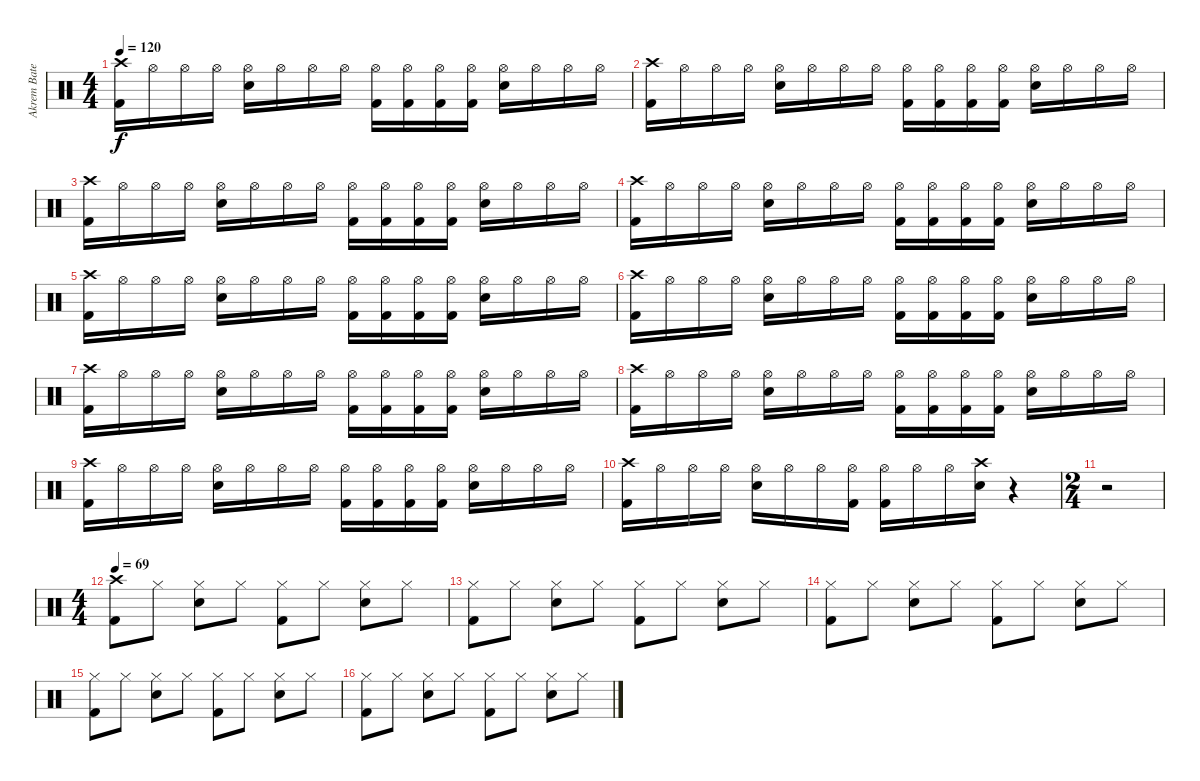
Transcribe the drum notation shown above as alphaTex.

\track ("Akrem Baterie" "Akrem Bate") {instrument percussion}
\staff {score}
\articulation defaults
\ts (4 4)
\tempo 120
\clef neutral
\ks c
("Crash high (hit)" "Kick (hit) 2").16{dy f} "Hi-Hat (open)".16 "Hi-Hat (open)".16 "Hi-Hat (open)".16 ("Hi-Hat (open)" "Electric Snare (hit)").16 "Hi-Hat (open)".16 "Hi-Hat (open)".16 "Hi-Hat (open)".16 ("Hi-Hat (open)" "Kick (hit) 2").16 ("Hi-Hat (open)" "Kick (hit) 2").16 ("Hi-Hat (open)" "Kick (hit) 2").16 ("Hi-Hat (open)" "Kick (hit) 2").16 ("Hi-Hat (open)" "Electric Snare (hit)").16 "Hi-Hat (open)".16 "Hi-Hat (open)".16 "Hi-Hat (open)".16 |
("Crash high (hit)" "Kick (hit) 2").16 "Hi-Hat (open)".16 "Hi-Hat (open)".16 "Hi-Hat (open)".16 ("Hi-Hat (open)" "Electric Snare (hit)").16 "Hi-Hat (open)".16 "Hi-Hat (open)".16 "Hi-Hat (open)".16 ("Hi-Hat (open)" "Kick (hit) 2").16 ("Hi-Hat (open)" "Kick (hit) 2").16 ("Hi-Hat (open)" "Kick (hit) 2").16 ("Hi-Hat (open)" "Kick (hit) 2").16 ("Hi-Hat (open)" "Electric Snare (hit)").16 "Hi-Hat (open)".16 "Hi-Hat (open)".16 "Hi-Hat (open)".16 |
("Crash high (hit)" "Kick (hit) 2").16 "Hi-Hat (open)".16 "Hi-Hat (open)".16 "Hi-Hat (open)".16 ("Hi-Hat (open)" "Electric Snare (hit)").16 "Hi-Hat (open)".16 "Hi-Hat (open)".16 "Hi-Hat (open)".16 ("Hi-Hat (open)" "Kick (hit) 2").16 ("Hi-Hat (open)" "Kick (hit) 2").16 ("Hi-Hat (open)" "Kick (hit) 2").16 ("Hi-Hat (open)" "Kick (hit) 2").16 ("Hi-Hat (open)" "Electric Snare (hit)").16 "Hi-Hat (open)".16 "Hi-Hat (open)".16 "Hi-Hat (open)".16 |
("Crash high (hit)" "Kick (hit) 2").16 "Hi-Hat (open)".16 "Hi-Hat (open)".16 "Hi-Hat (open)".16 ("Hi-Hat (open)" "Electric Snare (hit)").16 "Hi-Hat (open)".16 "Hi-Hat (open)".16 "Hi-Hat (open)".16 ("Hi-Hat (open)" "Kick (hit) 2").16 ("Hi-Hat (open)" "Kick (hit) 2").16 ("Hi-Hat (open)" "Kick (hit) 2").16 ("Hi-Hat (open)" "Kick (hit) 2").16 ("Hi-Hat (open)" "Electric Snare (hit)").16 "Hi-Hat (open)".16 "Hi-Hat (open)".16 "Hi-Hat (open)".16 |
("Crash high (hit)" "Kick (hit) 2").16 "Hi-Hat (open)".16 "Hi-Hat (open)".16 "Hi-Hat (open)".16 ("Hi-Hat (open)" "Electric Snare (hit)").16 "Hi-Hat (open)".16 "Hi-Hat (open)".16 "Hi-Hat (open)".16 ("Hi-Hat (open)" "Kick (hit) 2").16 ("Hi-Hat (open)" "Kick (hit) 2").16 ("Hi-Hat (open)" "Kick (hit) 2").16 ("Hi-Hat (open)" "Kick (hit) 2").16 ("Hi-Hat (open)" "Electric Snare (hit)").16 "Hi-Hat (open)".16 "Hi-Hat (open)".16 "Hi-Hat (open)".16 |
("Crash high (hit)" "Kick (hit) 2").16 "Hi-Hat (open)".16 "Hi-Hat (open)".16 "Hi-Hat (open)".16 ("Hi-Hat (open)" "Electric Snare (hit)").16 "Hi-Hat (open)".16 "Hi-Hat (open)".16 "Hi-Hat (open)".16 ("Hi-Hat (open)" "Kick (hit) 2").16 ("Hi-Hat (open)" "Kick (hit) 2").16 ("Hi-Hat (open)" "Kick (hit) 2").16 ("Hi-Hat (open)" "Kick (hit) 2").16 ("Hi-Hat (open)" "Electric Snare (hit)").16 "Hi-Hat (open)".16 "Hi-Hat (open)".16 "Hi-Hat (open)".16 |
("Crash high (hit)" "Kick (hit) 2").16 "Hi-Hat (open)".16 "Hi-Hat (open)".16 "Hi-Hat (open)".16 ("Hi-Hat (open)" "Electric Snare (hit)").16 "Hi-Hat (open)".16 "Hi-Hat (open)".16 "Hi-Hat (open)".16 ("Hi-Hat (open)" "Kick (hit) 2").16 ("Hi-Hat (open)" "Kick (hit) 2").16 ("Hi-Hat (open)" "Kick (hit) 2").16 ("Hi-Hat (open)" "Kick (hit) 2").16 ("Hi-Hat (open)" "Electric Snare (hit)").16 "Hi-Hat (open)".16 "Hi-Hat (open)".16 "Hi-Hat (open)".16 |
("Crash high (hit)" "Kick (hit) 2").16 "Hi-Hat (open)".16 "Hi-Hat (open)".16 "Hi-Hat (open)".16 ("Hi-Hat (open)" "Electric Snare (hit)").16 "Hi-Hat (open)".16 "Hi-Hat (open)".16 "Hi-Hat (open)".16 ("Hi-Hat (open)" "Kick (hit) 2").16 ("Hi-Hat (open)" "Kick (hit) 2").16 ("Hi-Hat (open)" "Kick (hit) 2").16 ("Hi-Hat (open)" "Kick (hit) 2").16 ("Hi-Hat (open)" "Electric Snare (hit)").16 "Hi-Hat (open)".16 "Hi-Hat (open)".16 "Hi-Hat (open)".16 |
("Crash high (hit)" "Kick (hit) 2").16 "Hi-Hat (open)".16 "Hi-Hat (open)".16 "Hi-Hat (open)".16 ("Hi-Hat (open)" "Electric Snare (hit)").16 "Hi-Hat (open)".16 "Hi-Hat (open)".16 "Hi-Hat (open)".16 ("Hi-Hat (open)" "Kick (hit) 2").16 ("Hi-Hat (open)" "Kick (hit) 2").16 ("Hi-Hat (open)" "Kick (hit) 2").16 ("Hi-Hat (open)" "Kick (hit) 2").16 ("Hi-Hat (open)" "Electric Snare (hit)").16 "Hi-Hat (open)".16 "Hi-Hat (open)".16 "Hi-Hat (open)".16 |
("Crash high (hit)" "Kick (hit) 2").16 "Hi-Hat (open)".16 "Hi-Hat (open)".16 "Hi-Hat (open)".16 ("Hi-Hat (open)" "Electric Snare (hit)").16 "Hi-Hat (open)".16 "Hi-Hat (open)".16 ("Hi-Hat (open)" "Kick (hit) 2").16 ("Hi-Hat (open)" "Kick (hit) 2").16 "Hi-Hat (open)".16 "Hi-Hat (open)".16 ("Crash high (hit)" "Electric Snare (hit)").16 r.4 |
\ts (2 4)
r.2 |
\ts (4 4)
\tempo 69
("Crash high (hit)" "Kick (hit) 2").8 "Hi-Hat (closed)".8 ("Hi-Hat (closed)" "Electric Snare (hit)").8 "Hi-Hat (closed)".8 ("Hi-Hat (closed)" "Kick (hit) 2").8 "Hi-Hat (closed)".8 ("Hi-Hat (closed)" "Electric Snare (hit)").8 "Hi-Hat (closed)".8 |
("Hi-Hat (closed)" "Kick (hit) 2").8 "Hi-Hat (closed)".8 ("Hi-Hat (closed)" "Electric Snare (hit)").8 "Hi-Hat (closed)".8 ("Hi-Hat (closed)" "Kick (hit) 2").8 "Hi-Hat (closed)".8 ("Hi-Hat (closed)" "Electric Snare (hit)").8 "Hi-Hat (closed)".8 |
("Hi-Hat (closed)" "Kick (hit) 2").8 "Hi-Hat (closed)".8 ("Hi-Hat (closed)" "Electric Snare (hit)").8 "Hi-Hat (closed)".8 ("Hi-Hat (closed)" "Kick (hit) 2").8 "Hi-Hat (closed)".8 ("Hi-Hat (closed)" "Electric Snare (hit)").8 "Hi-Hat (closed)".8 |
("Hi-Hat (closed)" "Kick (hit) 2").8 "Hi-Hat (closed)".8 ("Hi-Hat (closed)" "Electric Snare (hit)").8 "Hi-Hat (closed)".8 ("Hi-Hat (closed)" "Kick (hit) 2").8 "Hi-Hat (closed)".8 ("Hi-Hat (closed)" "Electric Snare (hit)").8 "Hi-Hat (closed)".8 |
("Hi-Hat (closed)" "Kick (hit) 2").8 "Hi-Hat (closed)".8 ("Hi-Hat (closed)" "Electric Snare (hit)").8 "Hi-Hat (closed)".8 ("Hi-Hat (closed)" "Kick (hit) 2").8 "Hi-Hat (closed)".8 ("Hi-Hat (closed)" "Electric Snare (hit)").8 "Hi-Hat (closed)".8
